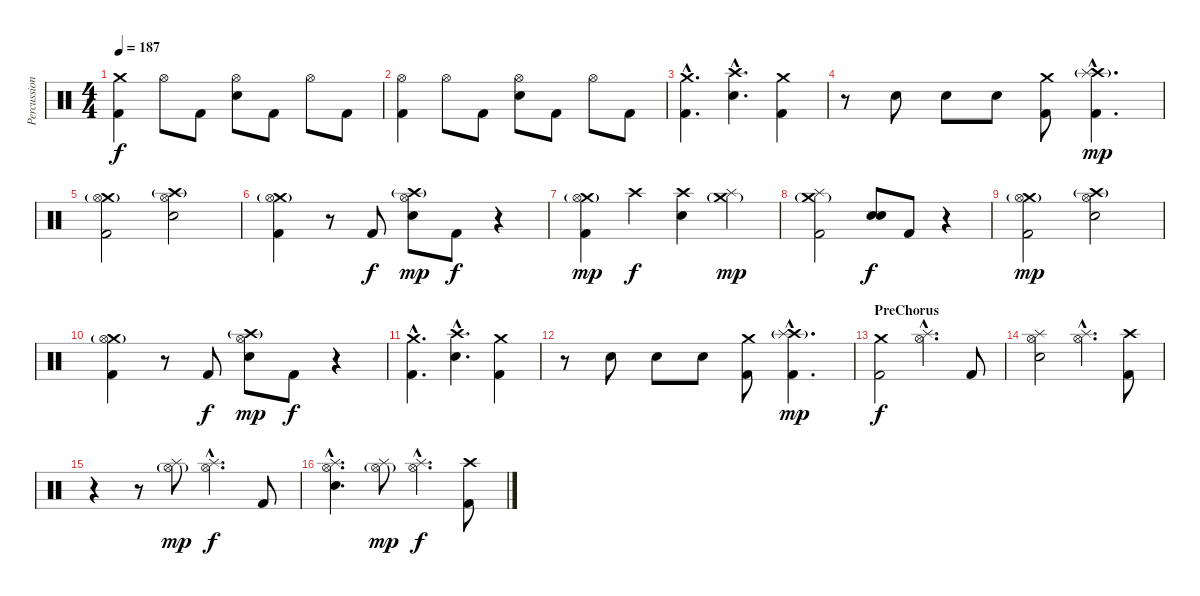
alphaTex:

\track ("Percussion" "Percussion") {instrument percussion}
\staff {score}
\articulation defaults
\ts (4 4)
\tempo 187
\clef neutral
\ks c
("Crash medium (hit)" "Kick (hit) 2").4{dy f} "Hi-Hat (open)".8 "Kick (hit) 2".8 ("Hi-Hat (open)" "Electric Snare (hit)").8 "Kick (hit) 2".8 "Hi-Hat (open)".8 "Kick (hit) 2".8 |
("Hi-Hat (open)" "Kick (hit) 2").4 "Hi-Hat (open)".8 "Kick (hit) 2".8 ("Hi-Hat (open)" "Electric Snare (hit)").8 "Kick (hit) 2".8 "Hi-Hat (open)".8 "Kick (hit) 2".8 |
("Crash medium (hit)"{hac} "Kick (hit) 2"{hac}).4{d} ("Crash high (hit)"{hac} "Electric Snare (hit)"{hac}).4{d} ("Crash medium (hit)" "Kick (hit) 2").4 |
r.8 "Electric Snare (hit)".8 "Electric Snare (hit)".8 "Electric Snare (hit)".8 ("Crash medium (hit)" "Kick (hit) 2").8 ("Crash high (hit)"{g hac} "Splash (hit)"{hac} "Kick (hit) 2"{hac}).4{d dy mp} |
("Crash medium (hit)"{g} "Hi-Hat (open)" "Kick (hit) 2").2 ("Crash high (hit)"{g} "Hi-Hat (open)" "Electric Snare (hit)").2 |
("Crash medium (hit)"{g} "Hi-Hat (open)" "Kick (hit) 2").4 r.8 "Kick (hit) 2".8{dy f} ("Crash high (hit)"{g} "Hi-Hat (open)" "Electric Snare (hit)").8{dy mp} "Kick (hit) 2".8{dy f} r.4 |
("Crash medium (hit)"{g} "Hi-Hat (open)" "Kick (hit) 2").4{dy mp} "Crash high (hit)".4{dy f} ("Crash high (hit)" "Electric Snare (hit)").4 ("Crash medium (hit)"{g} "Splash (hit)").4{dy mp} |
("Crash medium (hit)"{g} "Splash (hit)" "Kick (hit) 2").2 ("Electric Snare (hit)" "Electric Snare (hit)").8{bd 480 dy f} "Kick (hit) 2".8 r.4 |
("Crash medium (hit)"{g} "Hi-Hat (open)" "Kick (hit) 2").2{dy mp} ("Crash high (hit)"{g} "Hi-Hat (open)" "Electric Snare (hit)").2 |
("Crash medium (hit)"{g} "Hi-Hat (open)" "Kick (hit) 2").4 r.8 "Kick (hit) 2".8{dy f} ("Crash high (hit)"{g} "Hi-Hat (open)" "Electric Snare (hit)").8{dy mp} "Kick (hit) 2".8{dy f} r.4 |
("Crash medium (hit)"{hac} "Kick (hit) 2"{hac}).4{d} ("Crash high (hit)"{hac} "Electric Snare (hit)"{hac}).4{d} ("Crash medium (hit)" "Kick (hit) 2").4 |
r.8 "Electric Snare (hit)".8 "Electric Snare (hit)".8 "Electric Snare (hit)".8 ("Crash medium (hit)" "Kick (hit) 2").8 ("Crash high (hit)"{g hac} "Splash (hit)"{hac} "Kick (hit) 2"{hac}).4{d dy mp} |
\section ("" "PreChorus")
("Crash medium (hit)" "Kick (hit) 2").2{dy f} ("Hi-Hat (open)"{hac} "Splash (hit)"{hac}).4{d} "Kick (hit) 2".8 |
("Hi-Hat (open)" "Splash (hit)" "Electric Snare (hit)").2 ("Hi-Hat (open)"{hac} "Splash (hit)"{hac}).4{d} ("Crash high (hit)" "Kick (hit) 2").8 |
r.4 r.8 ("Hi-Hat (open)"{g} "Splash (hit)").8{dy mp} ("Hi-Hat (open)"{hac} "Splash (hit)"{hac}).4{d dy f} "Kick (hit) 2".8 |
("Hi-Hat (open)"{hac} "Splash (hit)"{hac} "Electric Snare (hit)"{hac}).4{d} ("Hi-Hat (open)"{g} "Splash (hit)").8{dy mp} ("Hi-Hat (open)"{hac} "Splash (hit)"{hac}).4{d dy f} ("Crash high (hit)" "Kick (hit) 2").8
